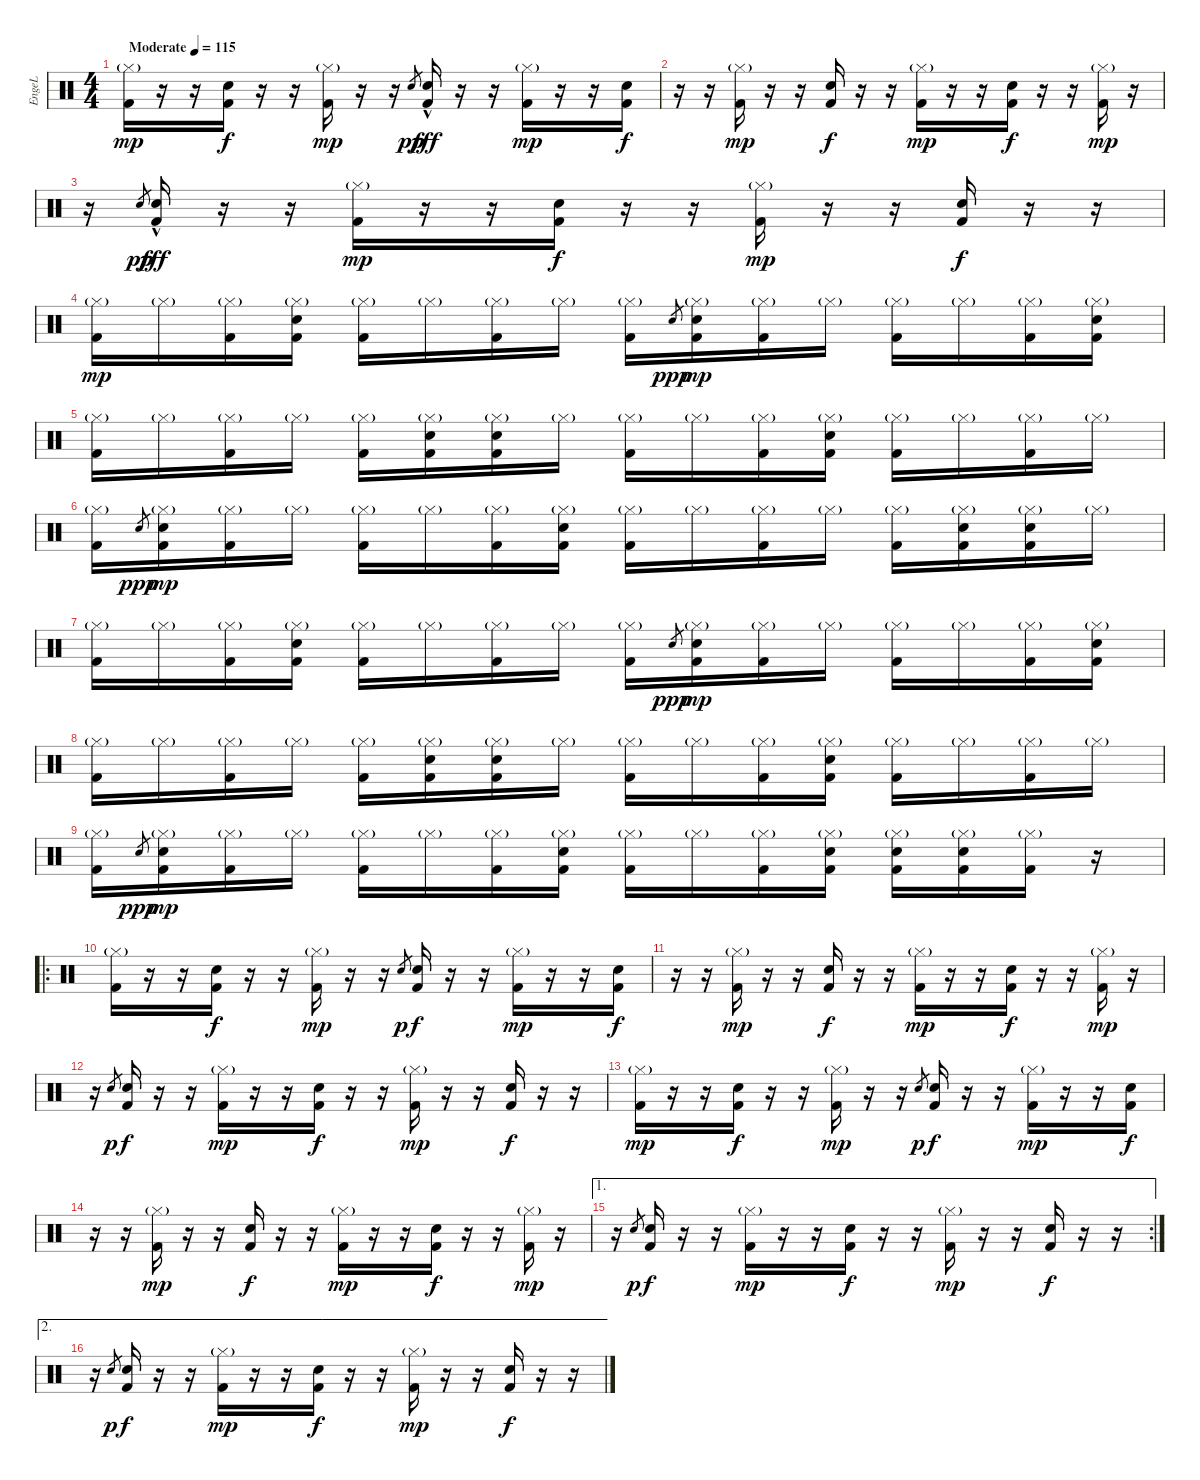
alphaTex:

\track ("EngeL" "EngeL") {instrument percussion}
\staff {score}
\articulation defaults
\ts (4 4)
\tempo (115 "Moderate")
\clef neutral
\ks c
("Kick (hit) 2" "Hi-Hat (closed)"{g}).16{dy mp} r.16 r.16 ("Kick (hit) 2" "Snare (hit) 2").16{dy f} r.16 r.16 ("Kick (hit) 2" "Hi-Hat (closed)"{g}).16{dy mp} r.16 r.16 "Snare (hit) 2".8{gr dy pp} ("Kick (hit) 2" "Snare (hit) 2"{hac}).16{dy fff} r.16 r.16 ("Kick (hit) 2" "Hi-Hat (closed)"{g}).16{dy mp} r.16 r.16 ("Kick (hit) 2" "Snare (hit) 2").16{dy f} |
r.16 r.16 ("Kick (hit) 2" "Hi-Hat (closed)"{g}).16{dy mp} r.16 r.16 ("Kick (hit) 2" "Snare (hit) 2").16{dy f} r.16 r.16 ("Kick (hit) 2" "Hi-Hat (closed)"{g}).16{dy mp} r.16 r.16 ("Kick (hit) 2" "Snare (hit) 2").16{dy f} r.16 r.16 ("Kick (hit) 2" "Hi-Hat (closed)"{g}).16{dy mp} r.16 |
r.16 "Snare (hit) 2".8{gr dy pp} ("Kick (hit) 2" "Snare (hit) 2"{hac}).16{dy fff} r.16 r.16 ("Kick (hit) 2" "Hi-Hat (closed)"{g}).16{dy mp} r.16 r.16 ("Kick (hit) 2" "Snare (hit) 2").16{dy f} r.16 r.16 ("Kick (hit) 2" "Hi-Hat (closed)"{g}).16{dy mp} r.16 r.16 ("Kick (hit) 2" "Snare (hit) 2").16{dy f} r.16 r.16 |
("Kick (hit) 2" "Hi-Hat (closed)"{g}).16{dy mp} "Hi-Hat (closed)"{g}.16 ("Kick (hit) 2" "Hi-Hat (closed)"{g}).16 ("Kick (hit) 2" "Snare (hit) 2" "Hi-Hat (closed)"{g}).16 ("Kick (hit) 2" "Hi-Hat (closed)"{g}).16 "Hi-Hat (closed)"{g}.16 ("Kick (hit) 2" "Hi-Hat (closed)"{g}).16 "Hi-Hat (closed)"{g}.16 ("Kick (hit) 2" "Hi-Hat (closed)"{g}).16 "Snare (hit) 2".8{gr dy ppp} ("Kick (hit) 2" "Snare (hit) 2" "Hi-Hat (closed)"{g}).16{dy mp} ("Kick (hit) 2" "Hi-Hat (closed)"{g}).16 "Hi-Hat (closed)"{g}.16 ("Kick (hit) 2" "Hi-Hat (closed)"{g}).16 "Hi-Hat (closed)"{g}.16 ("Kick (hit) 2" "Hi-Hat (closed)"{g}).16 ("Kick (hit) 2" "Snare (hit) 2" "Hi-Hat (closed)"{g}).16 |
("Kick (hit) 2" "Hi-Hat (closed)"{g}).16 "Hi-Hat (closed)"{g}.16 ("Kick (hit) 2" "Hi-Hat (closed)"{g}).16 "Hi-Hat (closed)"{g}.16 ("Kick (hit) 2" "Hi-Hat (closed)"{g}).16 ("Kick (hit) 2" "Snare (hit) 2" "Hi-Hat (closed)"{g}).16 ("Kick (hit) 2" "Snare (hit) 2" "Hi-Hat (closed)"{g}).16 "Hi-Hat (closed)"{g}.16 ("Kick (hit) 2" "Hi-Hat (closed)"{g}).16 "Hi-Hat (closed)"{g}.16 ("Kick (hit) 2" "Hi-Hat (closed)"{g}).16 ("Kick (hit) 2" "Snare (hit) 2" "Hi-Hat (closed)"{g}).16 ("Kick (hit) 2" "Hi-Hat (closed)"{g}).16 "Hi-Hat (closed)"{g}.16 ("Kick (hit) 2" "Hi-Hat (closed)"{g}).16 "Hi-Hat (closed)"{g}.16 |
("Kick (hit) 2" "Hi-Hat (closed)"{g}).16 "Snare (hit) 2".8{gr dy ppp} ("Kick (hit) 2" "Snare (hit) 2" "Hi-Hat (closed)"{g}).16{dy mp} ("Kick (hit) 2" "Hi-Hat (closed)"{g}).16 "Hi-Hat (closed)"{g}.16 ("Kick (hit) 2" "Hi-Hat (closed)"{g}).16 "Hi-Hat (closed)"{g}.16 ("Kick (hit) 2" "Hi-Hat (closed)"{g}).16 ("Kick (hit) 2" "Snare (hit) 2" "Hi-Hat (closed)"{g}).16 ("Kick (hit) 2" "Hi-Hat (closed)"{g}).16 "Hi-Hat (closed)"{g}.16 ("Kick (hit) 2" "Hi-Hat (closed)"{g}).16 "Hi-Hat (closed)"{g}.16 ("Kick (hit) 2" "Hi-Hat (closed)"{g}).16 ("Kick (hit) 2" "Snare (hit) 2" "Hi-Hat (closed)"{g}).16 ("Kick (hit) 2" "Snare (hit) 2" "Hi-Hat (closed)"{g}).16 "Hi-Hat (closed)"{g}.16 |
("Kick (hit) 2" "Hi-Hat (closed)"{g}).16 "Hi-Hat (closed)"{g}.16 ("Kick (hit) 2" "Hi-Hat (closed)"{g}).16 ("Kick (hit) 2" "Snare (hit) 2" "Hi-Hat (closed)"{g}).16 ("Kick (hit) 2" "Hi-Hat (closed)"{g}).16 "Hi-Hat (closed)"{g}.16 ("Kick (hit) 2" "Hi-Hat (closed)"{g}).16 "Hi-Hat (closed)"{g}.16 ("Kick (hit) 2" "Hi-Hat (closed)"{g}).16 "Snare (hit) 2".8{gr dy ppp} ("Kick (hit) 2" "Snare (hit) 2" "Hi-Hat (closed)"{g}).16{dy mp} ("Kick (hit) 2" "Hi-Hat (closed)"{g}).16 "Hi-Hat (closed)"{g}.16 ("Kick (hit) 2" "Hi-Hat (closed)"{g}).16 "Hi-Hat (closed)"{g}.16 ("Kick (hit) 2" "Hi-Hat (closed)"{g}).16 ("Kick (hit) 2" "Snare (hit) 2" "Hi-Hat (closed)"{g}).16 |
("Kick (hit) 2" "Hi-Hat (closed)"{g}).16 "Hi-Hat (closed)"{g}.16 ("Kick (hit) 2" "Hi-Hat (closed)"{g}).16 "Hi-Hat (closed)"{g}.16 ("Kick (hit) 2" "Hi-Hat (closed)"{g}).16 ("Kick (hit) 2" "Snare (hit) 2" "Hi-Hat (closed)"{g}).16 ("Kick (hit) 2" "Snare (hit) 2" "Hi-Hat (closed)"{g}).16 "Hi-Hat (closed)"{g}.16 ("Kick (hit) 2" "Hi-Hat (closed)"{g}).16 "Hi-Hat (closed)"{g}.16 ("Kick (hit) 2" "Hi-Hat (closed)"{g}).16 ("Kick (hit) 2" "Snare (hit) 2" "Hi-Hat (closed)"{g}).16 ("Kick (hit) 2" "Hi-Hat (closed)"{g}).16 "Hi-Hat (closed)"{g}.16 ("Kick (hit) 2" "Hi-Hat (closed)"{g}).16 "Hi-Hat (closed)"{g}.16 |
("Kick (hit) 2" "Hi-Hat (closed)"{g}).16 "Snare (hit) 2".8{gr dy ppp} ("Kick (hit) 2" "Snare (hit) 2" "Hi-Hat (closed)"{g}).16{dy mp} ("Kick (hit) 2" "Hi-Hat (closed)"{g}).16 "Hi-Hat (closed)"{g}.16 ("Kick (hit) 2" "Hi-Hat (closed)"{g}).16 "Hi-Hat (closed)"{g}.16 ("Kick (hit) 2" "Hi-Hat (closed)"{g}).16 ("Kick (hit) 2" "Snare (hit) 2" "Hi-Hat (closed)"{g}).16 ("Kick (hit) 2" "Hi-Hat (closed)"{g}).16 "Hi-Hat (closed)"{g}.16 ("Kick (hit) 2" "Hi-Hat (closed)"{g}).16 ("Kick (hit) 2" "Snare (hit) 2" "Hi-Hat (closed)"{g}).16 ("Kick (hit) 2" "Snare (hit) 2" "Hi-Hat (closed)"{g}).16 ("Kick (hit) 2" "Snare (hit) 2" "Hi-Hat (closed)"{g}).16 ("Kick (hit) 2" "Hi-Hat (closed)"{g}).16 r.16 |
\ro
("Kick (hit) 2" "Hi-Hat (closed)"{g}).16 r.16 r.16 ("Kick (hit) 2" "Snare (hit) 2").16{dy f} r.16 r.16 ("Kick (hit) 2" "Hi-Hat (closed)"{g}).16{dy mp} r.16 r.16 "Snare (hit) 2".8{gr dy p} ("Kick (hit) 2" "Snare (hit) 2").16{dy f} r.16 r.16 ("Kick (hit) 2" "Hi-Hat (closed)"{g}).16{dy mp} r.16 r.16 ("Kick (hit) 2" "Snare (hit) 2").16{dy f} |
r.16 r.16 ("Kick (hit) 2" "Hi-Hat (closed)"{g}).16{dy mp} r.16 r.16 ("Kick (hit) 2" "Snare (hit) 2").16{dy f} r.16 r.16 ("Kick (hit) 2" "Hi-Hat (closed)"{g}).16{dy mp} r.16 r.16 ("Kick (hit) 2" "Snare (hit) 2").16{dy f} r.16 r.16 ("Kick (hit) 2" "Hi-Hat (closed)"{g}).16{dy mp} r.16 |
r.16 "Snare (hit) 2".8{gr dy p} ("Kick (hit) 2" "Snare (hit) 2").16{dy f} r.16 r.16 ("Kick (hit) 2" "Hi-Hat (closed)"{g}).16{dy mp} r.16 r.16 ("Kick (hit) 2" "Snare (hit) 2").16{dy f} r.16 r.16 ("Kick (hit) 2" "Hi-Hat (closed)"{g}).16{dy mp} r.16 r.16 ("Kick (hit) 2" "Snare (hit) 2").16{dy f} r.16 r.16 |
("Kick (hit) 2" "Hi-Hat (closed)"{g}).16{dy mp} r.16 r.16 ("Kick (hit) 2" "Snare (hit) 2").16{dy f} r.16 r.16 ("Kick (hit) 2" "Hi-Hat (closed)"{g}).16{dy mp} r.16 r.16 "Snare (hit) 2".8{gr dy p} ("Kick (hit) 2" "Snare (hit) 2").16{dy f} r.16 r.16 ("Kick (hit) 2" "Hi-Hat (closed)"{g}).16{dy mp} r.16 r.16 ("Kick (hit) 2" "Snare (hit) 2").16{dy f} |
r.16 r.16 ("Kick (hit) 2" "Hi-Hat (closed)"{g}).16{dy mp} r.16 r.16 ("Kick (hit) 2" "Snare (hit) 2").16{dy f} r.16 r.16 ("Kick (hit) 2" "Hi-Hat (closed)"{g}).16{dy mp} r.16 r.16 ("Kick (hit) 2" "Snare (hit) 2").16{dy f} r.16 r.16 ("Kick (hit) 2" "Hi-Hat (closed)"{g}).16{dy mp} r.16 |
\ae 1
\rc 2
r.16 "Snare (hit) 2".8{gr dy p} ("Kick (hit) 2" "Snare (hit) 2").16{dy f} r.16 r.16 ("Kick (hit) 2" "Hi-Hat (closed)"{g}).16{dy mp} r.16 r.16 ("Kick (hit) 2" "Snare (hit) 2").16{dy f} r.16 r.16 ("Kick (hit) 2" "Hi-Hat (closed)"{g}).16{dy mp} r.16 r.16 ("Kick (hit) 2" "Snare (hit) 2").16{dy f} r.16 r.16 |
\ae 2
r.16 "Snare (hit) 2".8{gr dy p} ("Kick (hit) 2" "Snare (hit) 2").16{dy f} r.16 r.16 ("Kick (hit) 2" "Hi-Hat (closed)"{g}).16{dy mp} r.16 r.16 ("Kick (hit) 2" "Snare (hit) 2").16{dy f} r.16 r.16 ("Kick (hit) 2" "Hi-Hat (closed)"{g}).16{dy mp} r.16 r.16 ("Kick (hit) 2" "Snare (hit) 2").16{dy f} r.16 r.16
